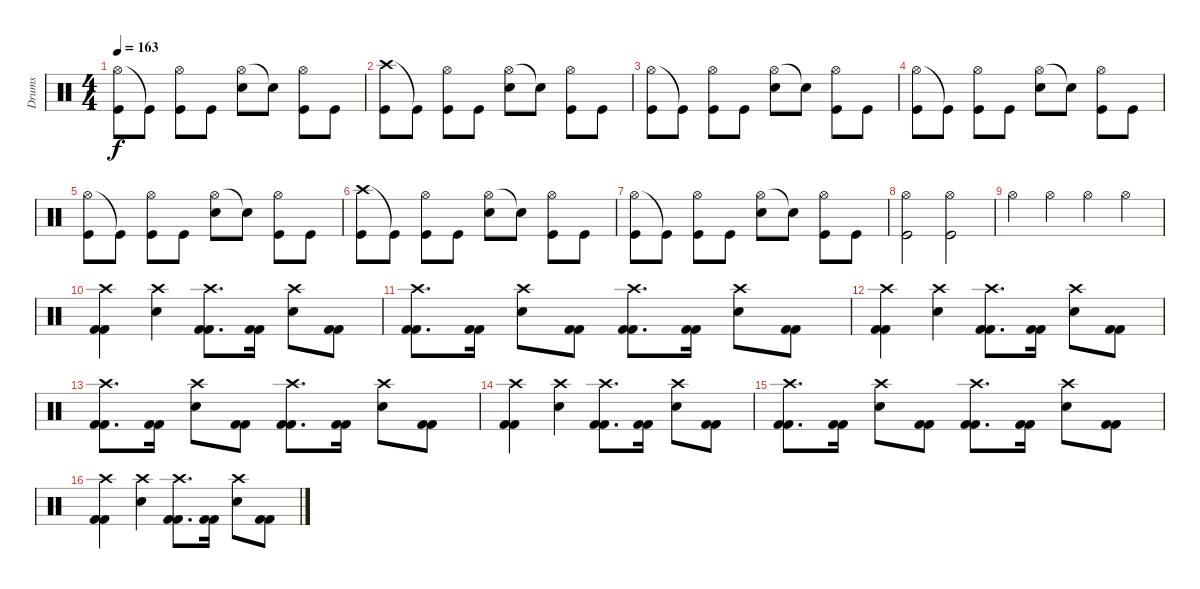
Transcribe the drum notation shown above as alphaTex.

\track ("Drums" "Drums") {instrument percussion}
\staff {score}
\articulation defaults
\ts (4 4)
\tempo 163
\clef neutral
\ks c
("Hi-Hat (open)" "Kick (hit)").8{dy f} "Kick (hit)"{t}.8 ("Hi-Hat (open)" "Kick (hit)").8 "Kick (hit)".8 ("Hi-Hat (open)" "Snare (hit) 2").8 "Snare (hit)"{t}.8 ("Hi-Hat (open)" "Kick (hit)").8 "Kick (hit)".8 |
("Crash high (hit)" "Kick (hit)").8 "Kick (hit)"{t}.8 ("Hi-Hat (open)" "Kick (hit)").8 "Kick (hit)".8 ("Hi-Hat (open)" "Snare (hit) 2").8 "Snare (hit)"{t}.8 ("Hi-Hat (open)" "Kick (hit)").8 "Kick (hit)".8 |
("Hi-Hat (open)" "Kick (hit)").8 "Kick (hit)"{t}.8 ("Hi-Hat (open)" "Kick (hit)").8 "Kick (hit)".8 ("Hi-Hat (open)" "Snare (hit) 2").8 "Snare (hit)"{t}.8 ("Hi-Hat (open)" "Kick (hit)").8 "Kick (hit)".8 |
("Hi-Hat (open)" "Kick (hit)").8 "Kick (hit)"{t}.8 ("Hi-Hat (open)" "Kick (hit)").8 "Kick (hit)".8 ("Hi-Hat (open)" "Snare (hit) 2").8 "Snare (hit)"{t}.8 ("Hi-Hat (open)" "Kick (hit)").8 "Kick (hit)".8 |
("Hi-Hat (open)" "Kick (hit)").8 "Kick (hit)"{t}.8 ("Hi-Hat (open)" "Kick (hit)").8 "Kick (hit)".8 ("Hi-Hat (open)" "Snare (hit) 2").8 "Snare (hit)"{t}.8 ("Hi-Hat (open)" "Kick (hit)").8 "Kick (hit)".8 |
("Crash high (hit)" "Kick (hit)").8 "Kick (hit)"{t}.8 ("Hi-Hat (open)" "Kick (hit)").8 "Kick (hit)".8 ("Hi-Hat (open)" "Snare (hit) 2").8 "Snare (hit)"{t}.8 ("Hi-Hat (open)" "Kick (hit)").8 "Kick (hit)".8 |
("Hi-Hat (open)" "Kick (hit)").8 "Kick (hit)"{t}.8 ("Hi-Hat (open)" "Kick (hit)").8 "Kick (hit)".8 ("Hi-Hat (open)" "Snare (hit) 2").8 "Snare (hit)"{t}.8 ("Hi-Hat (open)" "Kick (hit)").8 "Kick (hit)".8 |
("Hi-Hat (open)" "Kick (hit)").2 ("Hi-Hat (open)" "Kick (hit)").2 |
"Hi-Hat (open)".4 "Hi-Hat (open)".4 "Hi-Hat (open)".4 "Hi-Hat (open)".4 |
("Kick (hit) 2" "Kick (hit) 2" "Crash high (hit)").4 ("Snare (hit) 2" "Crash high (hit)").4 ("Kick (hit) 2" "Kick (hit) 2" "Crash high (hit)").8{d} ("Kick (hit) 2" "Kick (hit) 2").16 ("Snare (hit) 2" "Crash high (hit)").8 ("Kick (hit) 2" "Kick (hit) 2").8 |
("Kick (hit) 2" "Kick (hit) 2" "Crash high (hit)").8{d} ("Kick (hit) 2" "Kick (hit) 2").16 ("Snare (hit) 2" "Crash high (hit)").8 ("Kick (hit) 2" "Kick (hit) 2").8 ("Kick (hit) 2" "Kick (hit) 2" "Crash high (hit)").8{d} ("Kick (hit) 2" "Kick (hit) 2").16 ("Snare (hit) 2" "Crash high (hit)").8 ("Kick (hit) 2" "Kick (hit) 2").8 |
("Kick (hit) 2" "Kick (hit) 2" "Crash high (hit)").4 ("Snare (hit) 2" "Crash high (hit)").4 ("Kick (hit) 2" "Kick (hit) 2" "Crash high (hit)").8{d} ("Kick (hit) 2" "Kick (hit) 2").16 ("Snare (hit) 2" "Crash high (hit)").8 ("Kick (hit) 2" "Kick (hit) 2").8 |
("Kick (hit) 2" "Kick (hit) 2" "Crash high (hit)").8{d} ("Kick (hit) 2" "Kick (hit) 2").16 ("Snare (hit) 2" "Crash high (hit)").8 ("Kick (hit) 2" "Kick (hit) 2").8 ("Kick (hit) 2" "Kick (hit) 2" "Crash high (hit)").8{d} ("Kick (hit) 2" "Kick (hit) 2").16 ("Snare (hit) 2" "Crash high (hit)").8 ("Kick (hit) 2" "Kick (hit) 2").8 |
("Kick (hit) 2" "Kick (hit) 2" "Crash high (hit)").4 ("Snare (hit) 2" "Crash high (hit)").4 ("Kick (hit) 2" "Kick (hit) 2" "Crash high (hit)").8{d} ("Kick (hit) 2" "Kick (hit) 2").16 ("Snare (hit) 2" "Crash high (hit)").8 ("Kick (hit) 2" "Kick (hit) 2").8 |
("Kick (hit) 2" "Kick (hit) 2" "Crash high (hit)").8{d} ("Kick (hit) 2" "Kick (hit) 2").16 ("Snare (hit) 2" "Crash high (hit)").8 ("Kick (hit) 2" "Kick (hit) 2").8 ("Kick (hit) 2" "Kick (hit) 2" "Crash high (hit)").8{d} ("Kick (hit) 2" "Kick (hit) 2").16 ("Snare (hit) 2" "Crash high (hit)").8 ("Kick (hit) 2" "Kick (hit) 2").8 |
("Kick (hit) 2" "Kick (hit) 2" "Crash high (hit)").4 ("Snare (hit) 2" "Crash high (hit)").4 ("Kick (hit) 2" "Kick (hit) 2" "Crash high (hit)").8{d} ("Kick (hit) 2" "Kick (hit) 2").16 ("Snare (hit) 2" "Crash high (hit)").8 ("Kick (hit) 2" "Kick (hit) 2").8
